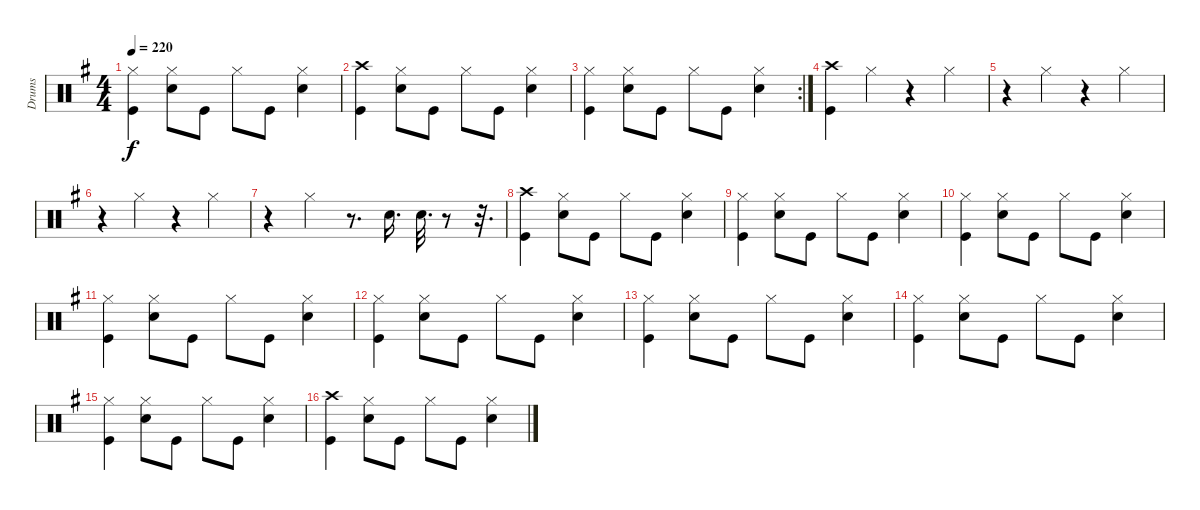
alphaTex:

\track ("Drums" "Drums") {instrument percussion}
\staff {score}
\articulation defaults
\ts (4 4)
\tempo 220
\clef neutral
\ks g
("Hi-Hat (closed)" "Kick (hit)").4{dy f} ("Hi-Hat (closed)" "Snare (hit) 2").8 "Kick (hit)".8 "Hi-Hat (closed)".8 "Kick (hit)".8 ("Hi-Hat (closed)" "Snare (hit) 2").4 |
("Crash high (hit)" "Kick (hit)").4 ("Hi-Hat (closed)" "Snare (hit) 2").8 "Kick (hit)".8 "Hi-Hat (closed)".8 "Kick (hit)".8 ("Hi-Hat (closed)" "Snare (hit) 2").4 |
\rc 2
("Hi-Hat (closed)" "Kick (hit)").4 ("Hi-Hat (closed)" "Snare (hit) 2").8 "Kick (hit)".8 "Hi-Hat (closed)".8 "Kick (hit)".8 ("Hi-Hat (closed)" "Snare (hit) 2").4 |
("Crash high (hit)" "Kick (hit)").4 "Hi-Hat (closed)".4 r.4 "Hi-Hat (closed)".4 |
r.4 "Hi-Hat (closed)".4 r.4 "Hi-Hat (closed)".4 |
r.4 "Hi-Hat (closed)".4 r.4 "Hi-Hat (closed)".4 |
r.4 "Hi-Hat (closed)".4 r.8{d} "Snare (hit) 2".16{d} "Snare (hit) 2".32{d} r.8 r.32{d} |
("Crash high (hit)" "Kick (hit)").4 ("Hi-Hat (closed)" "Snare (hit) 2").8 "Kick (hit)".8 "Hi-Hat (closed)".8 "Kick (hit)".8 ("Hi-Hat (closed)" "Snare (hit) 2").4 |
("Hi-Hat (closed)" "Kick (hit)").4 ("Hi-Hat (closed)" "Snare (hit) 2").8 "Kick (hit)".8 "Hi-Hat (closed)".8 "Kick (hit)".8 ("Hi-Hat (closed)" "Snare (hit) 2").4 |
("Hi-Hat (closed)" "Kick (hit)").4 ("Hi-Hat (closed)" "Snare (hit) 2").8 "Kick (hit)".8 "Hi-Hat (closed)".8 "Kick (hit)".8 ("Hi-Hat (closed)" "Snare (hit) 2").4 |
("Hi-Hat (closed)" "Kick (hit)").4 ("Hi-Hat (closed)" "Snare (hit) 2").8 "Kick (hit)".8 "Hi-Hat (closed)".8 "Kick (hit)".8 ("Hi-Hat (closed)" "Snare (hit) 2").4 |
("Hi-Hat (closed)" "Kick (hit)").4 ("Hi-Hat (closed)" "Snare (hit) 2").8 "Kick (hit)".8 "Hi-Hat (closed)".8 "Kick (hit)".8 ("Hi-Hat (closed)" "Snare (hit) 2").4 |
("Hi-Hat (closed)" "Kick (hit)").4 ("Hi-Hat (closed)" "Snare (hit) 2").8 "Kick (hit)".8 "Hi-Hat (closed)".8 "Kick (hit)".8 ("Hi-Hat (closed)" "Snare (hit) 2").4 |
("Hi-Hat (closed)" "Kick (hit)").4 ("Hi-Hat (closed)" "Snare (hit) 2").8 "Kick (hit)".8 "Hi-Hat (closed)".8 "Kick (hit)".8 ("Hi-Hat (closed)" "Snare (hit) 2").4 |
("Hi-Hat (closed)" "Kick (hit)").4 ("Hi-Hat (closed)" "Snare (hit) 2").8 "Kick (hit)".8 "Hi-Hat (closed)".8 "Kick (hit)".8 ("Hi-Hat (closed)" "Snare (hit) 2").4 |
("Crash high (hit)" "Kick (hit)").4 ("Hi-Hat (closed)" "Snare (hit) 2").8 "Kick (hit)".8 "Hi-Hat (closed)".8 "Kick (hit)".8 ("Hi-Hat (closed)" "Snare (hit) 2").4
